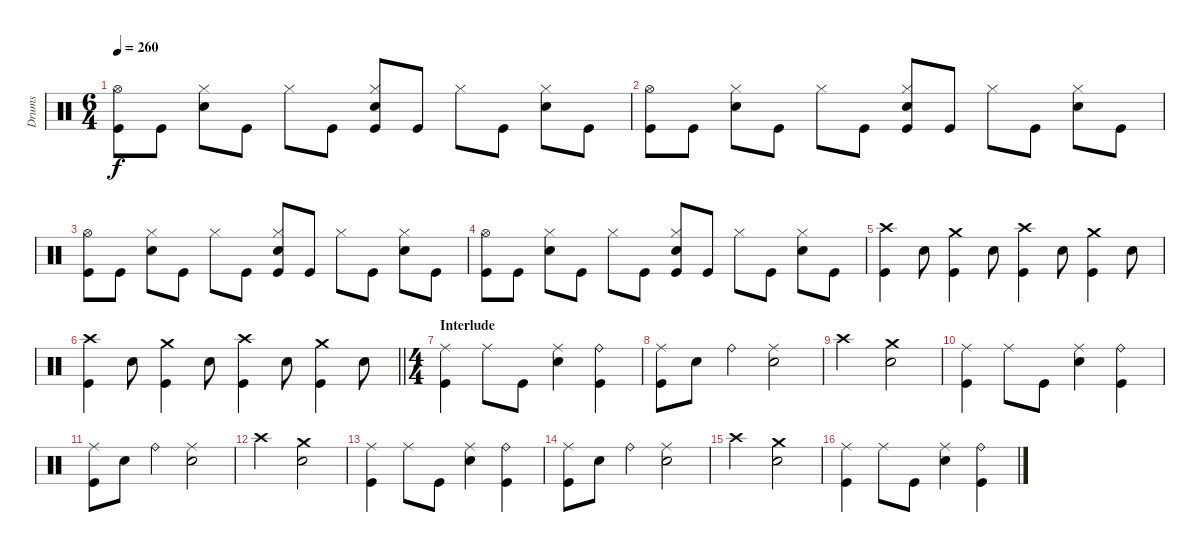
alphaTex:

\track ("Drums" "Drums") {instrument percussion}
\staff {score}
\articulation defaults
\ts (6 4)
\tempo 260
\clef neutral
\ks c
("Hi-Hat (open)" "Kick (hit)").8{dy f} "Kick (hit)".8 ("Hi-Hat (closed)" "Snare (hit) 2").8 "Kick (hit)".8 "Hi-Hat (closed)".8 "Kick (hit)".8 ("Hi-Hat (closed)" "Snare (hit) 2" "Kick (hit)").8 "Kick (hit)".8 "Hi-Hat (closed)".8 "Kick (hit)".8 ("Hi-Hat (closed)" "Snare (hit) 2").8 "Kick (hit)".8 |
("Hi-Hat (open)" "Kick (hit)").8 "Kick (hit)".8 ("Hi-Hat (closed)" "Snare (hit) 2").8 "Kick (hit)".8 "Hi-Hat (closed)".8 "Kick (hit)".8 ("Hi-Hat (closed)" "Snare (hit) 2" "Kick (hit)").8 "Kick (hit)".8 "Hi-Hat (closed)".8 "Kick (hit)".8 ("Hi-Hat (closed)" "Snare (hit) 2").8 "Kick (hit)".8 |
("Hi-Hat (open)" "Kick (hit)").8 "Kick (hit)".8 ("Hi-Hat (closed)" "Snare (hit) 2").8 "Kick (hit)".8 "Hi-Hat (closed)".8 "Kick (hit)".8 ("Hi-Hat (closed)" "Snare (hit) 2" "Kick (hit)").8 "Kick (hit)".8 "Hi-Hat (closed)".8 "Kick (hit)".8 ("Hi-Hat (closed)" "Snare (hit) 2").8 "Kick (hit)".8 |
("Hi-Hat (open)" "Kick (hit)").8 "Kick (hit)".8 ("Hi-Hat (closed)" "Snare (hit) 2").8 "Kick (hit)".8 "Hi-Hat (closed)".8 "Kick (hit)".8 ("Hi-Hat (closed)" "Snare (hit) 2" "Kick (hit)").8 "Kick (hit)".8 "Hi-Hat (closed)".8 "Kick (hit)".8 ("Hi-Hat (closed)" "Snare (hit) 2").8 "Kick (hit)".8 |
("Crash high (hit)" "Kick (hit)").4 "Snare (hit) 2".8 ("Crash medium (hit)" "Kick (hit)").4 "Snare (hit) 2".8 ("Crash high (hit)" "Kick (hit)").4 "Snare (hit) 2".8 ("Crash medium (hit)" "Kick (hit)").4 "Snare (hit) 2".8 |
\barLineRight lightlight
("Crash high (hit)" "Kick (hit)").4 "Snare (hit) 2".8 ("Crash medium (hit)" "Kick (hit)").4 "Snare (hit) 2".8 ("Crash high (hit)" "Kick (hit)").4 "Snare (hit) 2".8 ("Crash medium (hit)" "Kick (hit)").4 "Snare (hit) 2".8 |
\ts (4 4)
\section ("" "Interlude")
("Ride (middle)" "Kick (hit)").4 "Ride (middle)".8 "Kick (hit)".8 ("Ride (middle)" "Snare (hit) 2").4 ("Ride (bell)" "Kick (hit)").4 |
("Ride (middle)" "Kick (hit)").8 "Snare (hit) 2".8 "Ride (bell)".4 ("Ride (middle)" "Snare (hit) 2").2 |
"Crash high (hit)".2 ("Crash medium (hit)" "Snare (hit) 2").2 |
("Ride (middle)" "Kick (hit)").4 "Ride (middle)".8 "Kick (hit)".8 ("Ride (middle)" "Snare (hit) 2").4 ("Ride (bell)" "Kick (hit)").4 |
("Ride (middle)" "Kick (hit)").8 "Snare (hit) 2".8 "Ride (bell)".4 ("Ride (middle)" "Snare (hit) 2").2 |
"Crash high (hit)".2 ("Crash medium (hit)" "Snare (hit) 2").2 |
("Ride (middle)" "Kick (hit)").4 "Ride (middle)".8 "Kick (hit)".8 ("Ride (middle)" "Snare (hit) 2").4 ("Ride (bell)" "Kick (hit)").4 |
("Ride (middle)" "Kick (hit)").8 "Snare (hit) 2".8 "Ride (bell)".4 ("Ride (middle)" "Snare (hit) 2").2 |
"Crash high (hit)".2 ("Crash medium (hit)" "Snare (hit) 2").2 |
("Ride (middle)" "Kick (hit)").4 "Ride (middle)".8 "Kick (hit)".8 ("Ride (middle)" "Snare (hit) 2").4 ("Ride (bell)" "Kick (hit)").4
